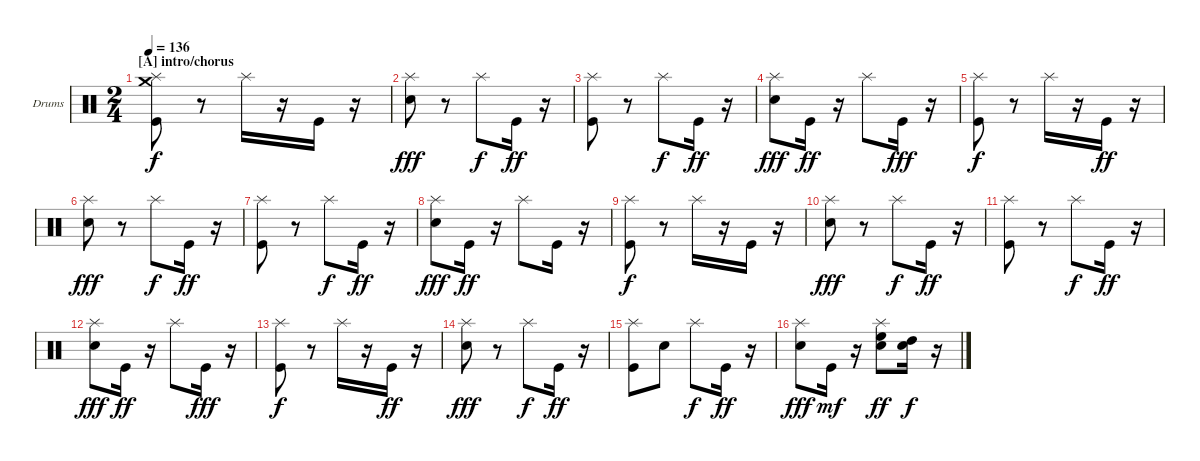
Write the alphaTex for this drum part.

\bracketExtendMode groupsimilarinstruments
\firstSystemTrackNameOrientation horizontal
\otherSystemsTrackNameOrientation horizontal
\track ("Drumkit" "Drums") {solo instrument percussion}
\staff {score}
\articulation defaults
\ts (2 4)
\section ("A" "intro/chorus")
\tempo 136
\clef neutral
\ks c
("Splash (hit)" "Crash medium (hit)" "Kick (hit)").8{dy f} r.8 "Splash (hit)".16 r.16 "Kick (hit)".16 r.16 |
("Splash (hit)" "Snare (hit) 2").8{dy fff} r.8 "Splash (hit)".8{dy f} "Kick (hit)".16{dy ff} r.16 |
("Splash (hit)" "Kick (hit)").8 r.8 "Splash (hit)".8{dy f} "Kick (hit)".16{dy ff} r.16 |
("Splash (hit)" "Snare (hit) 2").8{dy fff} "Kick (hit)".16{dy ff} r.16 "Splash (hit)".8 "Kick (hit)".16{dy fff} r.16 |
("Splash (hit)" "Kick (hit)").8{dy f} r.8 "Splash (hit)".16 r.16 "Kick (hit)".16{dy ff} r.16 |
("Splash (hit)" "Snare (hit) 2").8{dy fff} r.8 "Splash (hit)".8{dy f} "Kick (hit)".16{dy ff} r.16 |
("Splash (hit)" "Kick (hit)").8 r.8 "Splash (hit)".8{dy f} "Kick (hit)".16{dy ff} r.16 |
("Splash (hit)" "Snare (hit) 2").8{dy fff} "Kick (hit)".16{dy ff} r.16 "Splash (hit)".8 "Kick (hit)".16 r.16 |
("Splash (hit)" "Kick (hit)").8{dy f} r.8 "Splash (hit)".16 r.16 "Kick (hit)".16 r.16 |
("Splash (hit)" "Snare (hit) 2").8{dy fff} r.8 "Splash (hit)".8{dy f} "Kick (hit)".16{dy ff} r.16 |
("Splash (hit)" "Kick (hit)").8 r.8 "Splash (hit)".8{dy f} "Kick (hit)".16{dy ff} r.16 |
("Splash (hit)" "Snare (hit) 2").8{dy fff} "Kick (hit)".16{dy ff} r.16 "Splash (hit)".8 "Kick (hit)".16{dy fff} r.16 |
("Splash (hit)" "Kick (hit)").8{dy f} r.8 "Splash (hit)".16 r.16 "Kick (hit)".16{dy ff} r.16 |
("Splash (hit)" "Snare (hit) 2").8{dy fff} r.8 "Splash (hit)".8{dy f} "Kick (hit)".16{dy ff} r.16 |
("Splash (hit)" "Kick (hit)").8 "Snare (hit) 2".8 "Splash (hit)".8{dy f} "Kick (hit)".16{dy ff} r.16 |
("Splash (hit)" "Snare (hit) 2").8{dy fff} "Kick (hit)".16{dy mf} r.16 ("High Floor Tom (hit)" "Splash (hit)" "Snare (hit) 2").8{dy ff} ("High Tom (hit)" "Snare (hit) 2").16{dy f} r.16
